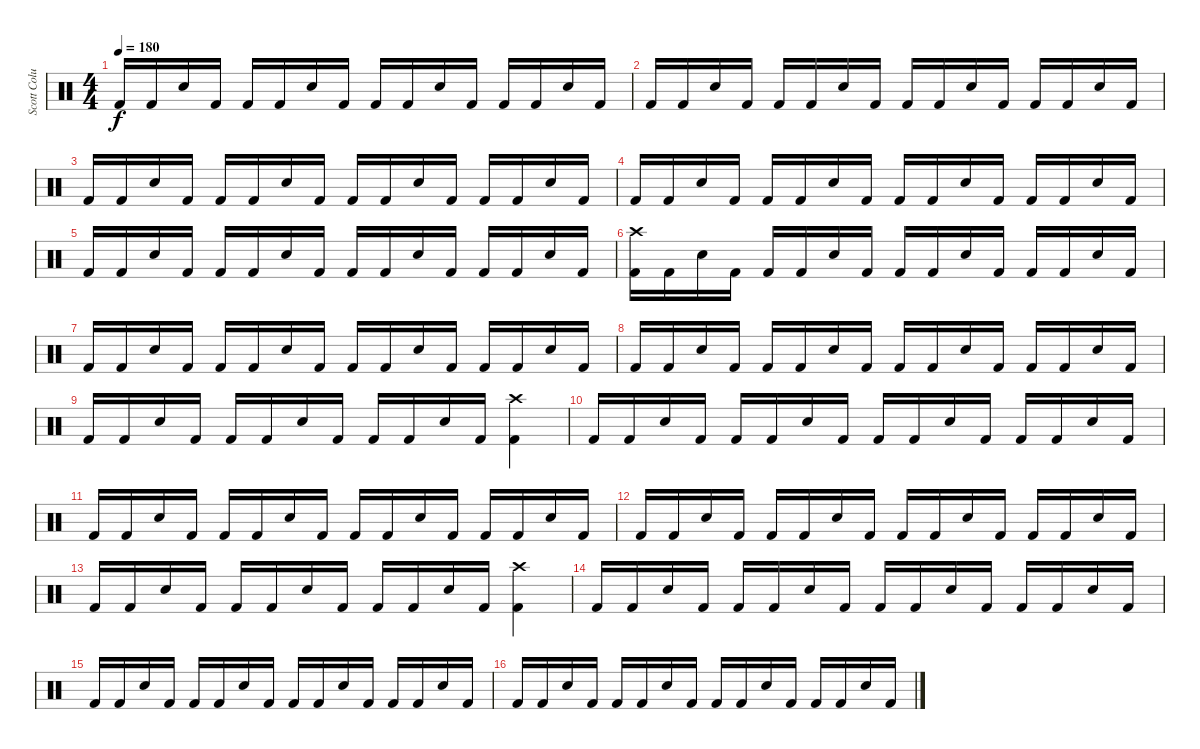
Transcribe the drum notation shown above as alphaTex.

\track ("Scott Columbus" "Scott Colu") {instrument percussion}
\staff {score}
\articulation defaults
\ts (4 4)
\tempo 180
\clef neutral
\ks c "Kick (hit) 2".16{dy f} "Kick (hit) 2".16 "Snare (hit) 2".16 "Kick (hit) 2".16 "Kick (hit) 2".16 "Kick (hit) 2".16 "Snare (hit) 2".16 "Kick (hit) 2".16 "Kick (hit) 2".16 "Kick (hit) 2".16 "Snare (hit) 2".16 "Kick (hit) 2".16 "Kick (hit) 2".16 "Kick (hit) 2".16 "Snare (hit) 2".16 "Kick (hit) 2".16
|
"Kick (hit) 2".16 "Kick (hit) 2".16 "Snare (hit) 2".16 "Kick (hit) 2".16 "Kick (hit) 2".16 "Kick (hit) 2".16 "Snare (hit) 2".16 "Kick (hit) 2".16 "Kick (hit) 2".16 "Kick (hit) 2".16 "Snare (hit) 2".16 "Kick (hit) 2".16 "Kick (hit) 2".16 "Kick (hit) 2".16 "Snare (hit) 2".16 "Kick (hit) 2".16 |
"Kick (hit) 2".16 "Kick (hit) 2".16 "Snare (hit) 2".16 "Kick (hit) 2".16 "Kick (hit) 2".16 "Kick (hit) 2".16 "Snare (hit) 2".16 "Kick (hit) 2".16 "Kick (hit) 2".16 "Kick (hit) 2".16 "Snare (hit) 2".16 "Kick (hit) 2".16 "Kick (hit) 2".16 "Kick (hit) 2".16 "Snare (hit) 2".16 "Kick (hit) 2".16 |
"Kick (hit) 2".16 "Kick (hit) 2".16 "Snare (hit) 2".16 "Kick (hit) 2".16 "Kick (hit) 2".16 "Kick (hit) 2".16 "Snare (hit) 2".16 "Kick (hit) 2".16 "Kick (hit) 2".16 "Kick (hit) 2".16 "Snare (hit) 2".16 "Kick (hit) 2".16 "Kick (hit) 2".16 "Kick (hit) 2".16 "Snare (hit) 2".16 "Kick (hit) 2".16 |
"Kick (hit) 2".16 "Kick (hit) 2".16 "Snare (hit) 2".16 "Kick (hit) 2".16 "Kick (hit) 2".16 "Kick (hit) 2".16 "Snare (hit) 2".16 "Kick (hit) 2".16 "Kick (hit) 2".16 "Kick (hit) 2".16 "Snare (hit) 2".16 "Kick (hit) 2".16 "Kick (hit) 2".16 "Kick (hit) 2".16 "Snare (hit) 2".16 "Kick (hit) 2".16 |
("Crash high (hit)" "Kick (hit) 2").16 "Kick (hit) 2".16 "Snare (hit) 2".16 "Kick (hit) 2".16 "Kick (hit) 2".16 "Kick (hit) 2".16 "Snare (hit) 2".16 "Kick (hit) 2".16 "Kick (hit) 2".16 "Kick (hit) 2".16 "Snare (hit) 2".16 "Kick (hit) 2".16 "Kick (hit) 2".16 "Kick (hit) 2".16 "Snare (hit) 2".16 "Kick (hit) 2".16 |
"Kick (hit) 2".16 "Kick (hit) 2".16 "Snare (hit) 2".16 "Kick (hit) 2".16 "Kick (hit) 2".16 "Kick (hit) 2".16 "Snare (hit) 2".16 "Kick (hit) 2".16 "Kick (hit) 2".16 "Kick (hit) 2".16 "Snare (hit) 2".16 "Kick (hit) 2".16 "Kick (hit) 2".16 "Kick (hit) 2".16 "Snare (hit) 2".16 "Kick (hit) 2".16 |
"Kick (hit) 2".16 "Kick (hit) 2".16 "Snare (hit) 2".16 "Kick (hit) 2".16 "Kick (hit) 2".16 "Kick (hit) 2".16 "Snare (hit) 2".16 "Kick (hit) 2".16 "Kick (hit) 2".16 "Kick (hit) 2".16 "Snare (hit) 2".16 "Kick (hit) 2".16 "Kick (hit) 2".16 "Kick (hit) 2".16 "Snare (hit) 2".16 "Kick (hit) 2".16 |
"Kick (hit) 2".16 "Kick (hit) 2".16 "Snare (hit) 2".16 "Kick (hit) 2".16 "Kick (hit) 2".16 "Kick (hit) 2".16 "Snare (hit) 2".16 "Kick (hit) 2".16 "Kick (hit) 2".16 "Kick (hit) 2".16 "Snare (hit) 2".16 "Kick (hit) 2".16 ("Kick (hit) 2" "Crash high (hit)").4 |
"Kick (hit) 2".16 "Kick (hit) 2".16 "Snare (hit) 2".16 "Kick (hit) 2".16 "Kick (hit) 2".16 "Kick (hit) 2".16 "Snare (hit) 2".16 "Kick (hit) 2".16 "Kick (hit) 2".16 "Kick (hit) 2".16 "Snare (hit) 2".16 "Kick (hit) 2".16 "Kick (hit) 2".16 "Kick (hit) 2".16 "Snare (hit) 2".16 "Kick (hit) 2".16 |
"Kick (hit) 2".16 "Kick (hit) 2".16 "Snare (hit) 2".16 "Kick (hit) 2".16 "Kick (hit) 2".16 "Kick (hit) 2".16 "Snare (hit) 2".16 "Kick (hit) 2".16 "Kick (hit) 2".16 "Kick (hit) 2".16 "Snare (hit) 2".16 "Kick (hit) 2".16 "Kick (hit) 2".16 "Kick (hit) 2".16 "Snare (hit) 2".16 "Kick (hit) 2".16 |
"Kick (hit) 2".16 "Kick (hit) 2".16 "Snare (hit) 2".16 "Kick (hit) 2".16 "Kick (hit) 2".16 "Kick (hit) 2".16 "Snare (hit) 2".16 "Kick (hit) 2".16 "Kick (hit) 2".16 "Kick (hit) 2".16 "Snare (hit) 2".16 "Kick (hit) 2".16 "Kick (hit) 2".16 "Kick (hit) 2".16 "Snare (hit) 2".16 "Kick (hit) 2".16 |
"Kick (hit) 2".16 "Kick (hit) 2".16 "Snare (hit) 2".16 "Kick (hit) 2".16 "Kick (hit) 2".16 "Kick (hit) 2".16 "Snare (hit) 2".16 "Kick (hit) 2".16 "Kick (hit) 2".16 "Kick (hit) 2".16 "Snare (hit) 2".16 "Kick (hit) 2".16 ("Kick (hit) 2" "Crash high (hit)").4 |
"Kick (hit) 2".16 "Kick (hit) 2".16 "Snare (hit) 2".16 "Kick (hit) 2".16 "Kick (hit) 2".16 "Kick (hit) 2".16 "Snare (hit) 2".16 "Kick (hit) 2".16 "Kick (hit) 2".16 "Kick (hit) 2".16 "Snare (hit) 2".16 "Kick (hit) 2".16 "Kick (hit) 2".16 "Kick (hit) 2".16 "Snare (hit) 2".16 "Kick (hit) 2".16 |
"Kick (hit) 2".16 "Kick (hit) 2".16 "Snare (hit) 2".16 "Kick (hit) 2".16 "Kick (hit) 2".16 "Kick (hit) 2".16 "Snare (hit) 2".16 "Kick (hit) 2".16 "Kick (hit) 2".16 "Kick (hit) 2".16 "Snare (hit) 2".16 "Kick (hit) 2".16 "Kick (hit) 2".16 "Kick (hit) 2".16 "Snare (hit) 2".16 "Kick (hit) 2".16 |
"Kick (hit) 2".16 "Kick (hit) 2".16 "Snare (hit) 2".16 "Kick (hit) 2".16 "Kick (hit) 2".16 "Kick (hit) 2".16 "Snare (hit) 2".16 "Kick (hit) 2".16 "Kick (hit) 2".16 "Kick (hit) 2".16 "Snare (hit) 2".16 "Kick (hit) 2".16 "Kick (hit) 2".16 "Kick (hit) 2".16 "Snare (hit) 2".16 "Kick (hit) 2".16
